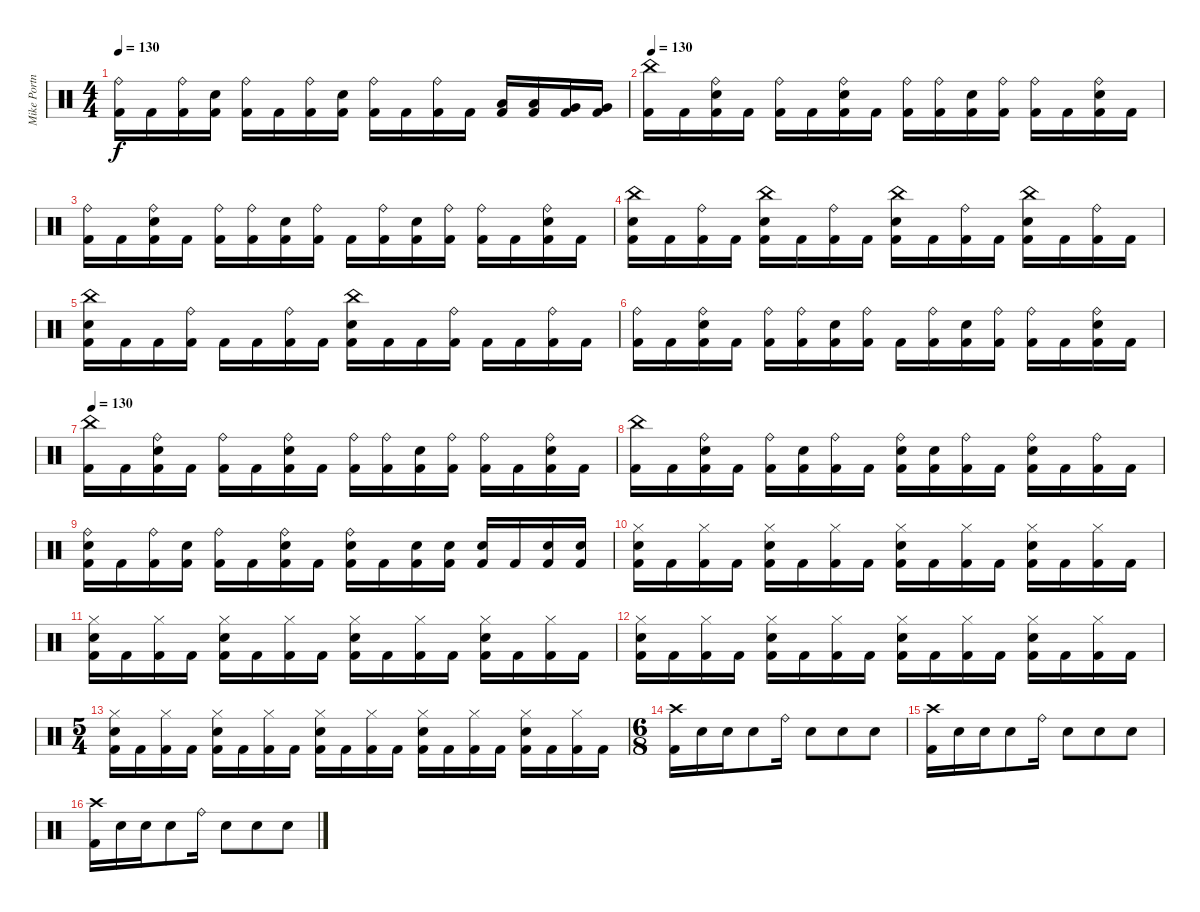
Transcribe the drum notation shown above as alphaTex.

\track ("Mike Portnoy Drums" "Mike Portn") {instrument percussion}
\staff {score}
\articulation defaults
\ts (4 4)
\tempo 130
\clef neutral
\ks c
("Ride (bell)" "Kick (hit) 2").16{dy f} "Kick (hit) 2".16 ("Ride (bell)" "Kick (hit) 2").16 ("Electric Snare (hit)" "Kick (hit) 2").16 ("Ride (bell)" "Kick (hit) 2").16 "Kick (hit) 2".16 ("Ride (bell)" "Kick (hit) 2").16 ("Electric Snare (hit)" "Kick (hit) 2").16 ("Ride (bell)" "Kick (hit) 2").16 "Kick (hit) 2".16 ("Ride (bell)" "Kick (hit) 2").16 "Kick (hit) 2".16 ("Low Tom (hit)" "Kick (hit) 2").16 ("Low Tom (hit)" "Kick (hit) 2").16 ("Very Low Tom (hit)" "Kick (hit) 2").16 ("Very Low Tom (hit)" "Kick (hit) 2").16 |
\tempo 130
("China (hit)" "Kick (hit) 2").16 "Kick (hit) 2".16 ("Ride (bell)" "Electric Snare (hit)" "Kick (hit) 2").16 "Kick (hit) 2".16 ("Ride (bell)" "Kick (hit) 2").16 "Kick (hit) 2".16 ("Ride (bell)" "Electric Snare (hit)" "Kick (hit) 2").16 "Kick (hit) 2".16 ("Ride (bell)" "Kick (hit) 2").16 ("Ride (bell)" "Kick (hit) 2").16 ("Electric Snare (hit)" "Kick (hit) 2").16 ("Ride (bell)" "Kick (hit) 2").16 ("Ride (bell)" "Kick (hit) 2").16 "Kick (hit) 2".16 ("Ride (bell)" "Electric Snare (hit)" "Kick (hit) 2").16 "Kick (hit) 2".16 |
("Ride (bell)" "Kick (hit) 2").16 "Kick (hit) 2".16 ("Ride (bell)" "Electric Snare (hit)" "Kick (hit) 2").16 "Kick (hit) 2".16 ("Ride (bell)" "Kick (hit) 2").16 ("Ride (bell)" "Kick (hit) 2").16 ("Electric Snare (hit)" "Kick (hit) 2").16 ("Ride (bell)" "Kick (hit) 2").16 "Kick (hit) 2".16 ("Ride (bell)" "Kick (hit) 2").16 ("Electric Snare (hit)" "Kick (hit) 2").16 ("Ride (bell)" "Kick (hit) 2").16 ("Ride (bell)" "Kick (hit) 2").16 "Kick (hit) 2".16 ("Ride (bell)" "Electric Snare (hit)" "Kick (hit) 2").16 "Kick (hit) 2".16 |
("China (hit)" "Electric Snare (hit)" "Kick (hit) 2").16 "Kick (hit) 2".16 ("Ride (bell)" "Kick (hit) 2").16 "Kick (hit) 2".16 ("China (hit)" "Electric Snare (hit)" "Kick (hit) 2").16 "Kick (hit) 2".16 ("Ride (bell)" "Kick (hit) 2").16 "Kick (hit) 2".16 ("China (hit)" "Electric Snare (hit)" "Kick (hit) 2").16 "Kick (hit) 2".16 ("Ride (bell)" "Kick (hit) 2").16 "Kick (hit) 2".16 ("China (hit)" "Electric Snare (hit)" "Kick (hit) 2").16 "Kick (hit) 2".16 ("Ride (bell)" "Kick (hit) 2").16 "Kick (hit) 2".16 |
("China (hit)" "Electric Snare (hit)" "Kick (hit) 2").16 "Kick (hit) 2".16 "Kick (hit) 2".16 ("Ride (bell)" "Kick (hit) 2").16 "Kick (hit) 2".16 "Kick (hit) 2".16 ("Ride (bell)" "Kick (hit) 2").16 "Kick (hit) 2".16 ("China (hit)" "Electric Snare (hit)" "Kick (hit) 2").16 "Kick (hit) 2".16 "Kick (hit) 2".16 ("Ride (bell)" "Kick (hit) 2").16 "Kick (hit) 2".16 "Kick (hit) 2".16 ("Ride (bell)" "Kick (hit) 2").16 "Kick (hit) 2".16 |
("Ride (bell)" "Kick (hit) 2").16 "Kick (hit) 2".16 ("Ride (bell)" "Electric Snare (hit)" "Kick (hit) 2").16 "Kick (hit) 2".16 ("Ride (bell)" "Kick (hit) 2").16 ("Ride (bell)" "Kick (hit) 2").16 ("Electric Snare (hit)" "Kick (hit) 2").16 ("Ride (bell)" "Kick (hit) 2").16 "Kick (hit) 2".16 ("Ride (bell)" "Kick (hit) 2").16 ("Electric Snare (hit)" "Kick (hit) 2").16 ("Ride (bell)" "Kick (hit) 2").16 ("Ride (bell)" "Kick (hit) 2").16 "Kick (hit) 2".16 ("Ride (bell)" "Electric Snare (hit)" "Kick (hit) 2").16 "Kick (hit) 2".16 |
\tempo 130
("China (hit)" "Kick (hit) 2").16 "Kick (hit) 2".16 ("Ride (bell)" "Electric Snare (hit)" "Kick (hit) 2").16 "Kick (hit) 2".16 ("Ride (bell)" "Kick (hit) 2").16 "Kick (hit) 2".16 ("Ride (bell)" "Electric Snare (hit)" "Kick (hit) 2").16 "Kick (hit) 2".16 ("Ride (bell)" "Kick (hit) 2").16 ("Ride (bell)" "Kick (hit) 2").16 ("Electric Snare (hit)" "Kick (hit) 2").16 ("Ride (bell)" "Kick (hit) 2").16 ("Ride (bell)" "Kick (hit) 2").16 "Kick (hit) 2".16 ("Ride (bell)" "Electric Snare (hit)" "Kick (hit) 2").16 "Kick (hit) 2".16 |
("China (hit)" "Kick (hit) 2").16 "Kick (hit) 2".16 ("Ride (bell)" "Electric Snare (hit)" "Kick (hit) 2").16 "Kick (hit) 2".16 ("Ride (bell)" "Kick (hit) 2").16 ("Electric Snare (hit)" "Kick (hit) 2").16 ("Ride (bell)" "Kick (hit) 2").16 "Kick (hit) 2".16 ("Ride (bell)" "Electric Snare (hit)" "Kick (hit) 2").16 ("Electric Snare (hit)" "Kick (hit) 2").16 ("Ride (bell)" "Kick (hit) 2").16 "Kick (hit) 2".16 ("Ride (bell)" "Electric Snare (hit)" "Kick (hit) 2").16 "Kick (hit) 2".16 ("Ride (bell)" "Kick (hit) 2").16 "Kick (hit) 2".16 |
("Ride (bell)" "Electric Snare (hit)" "Kick (hit) 2").16 "Kick (hit) 2".16 ("Ride (bell)" "Kick (hit) 2").16 ("Electric Snare (hit)" "Kick (hit) 2").16 ("Ride (bell)" "Kick (hit) 2").16 "Kick (hit) 2".16 ("Ride (bell)" "Electric Snare (hit)" "Kick (hit) 2").16 "Kick (hit) 2".16 ("Ride (bell)" "Electric Snare (hit)" "Kick (hit) 2").16 "Kick (hit) 2".16 ("Electric Snare (hit)" "Kick (hit) 2").16 ("Electric Snare (hit)" "Kick (hit) 2").16 ("Electric Snare (hit)" "Kick (hit) 2").16 "Kick (hit) 2".16 ("Electric Snare (hit)" "Kick (hit) 2").16 ("Electric Snare (hit)" "Kick (hit) 2").16 |
("Hi-Hat (closed)" "Electric Snare (hit)" "Kick (hit) 2").16 "Kick (hit) 2".16 ("Hi-Hat (closed)" "Kick (hit) 2").16 "Kick (hit) 2".16 ("Hi-Hat (closed)" "Electric Snare (hit)" "Kick (hit) 2").16 "Kick (hit) 2".16 ("Hi-Hat (closed)" "Kick (hit) 2").16 "Kick (hit) 2".16 ("Hi-Hat (closed)" "Electric Snare (hit)" "Kick (hit) 2").16 "Kick (hit) 2".16 ("Hi-Hat (closed)" "Kick (hit) 2").16 "Kick (hit) 2".16 ("Hi-Hat (closed)" "Electric Snare (hit)" "Kick (hit) 2").16 "Kick (hit) 2".16 ("Hi-Hat (closed)" "Kick (hit) 2").16 "Kick (hit) 2".16 |
("Hi-Hat (closed)" "Electric Snare (hit)" "Kick (hit) 2").16 "Kick (hit) 2".16 ("Hi-Hat (closed)" "Kick (hit) 2").16 "Kick (hit) 2".16 ("Hi-Hat (closed)" "Electric Snare (hit)" "Kick (hit) 2").16 "Kick (hit) 2".16 ("Hi-Hat (closed)" "Kick (hit) 2").16 "Kick (hit) 2".16 ("Hi-Hat (closed)" "Electric Snare (hit)" "Kick (hit) 2").16 "Kick (hit) 2".16 ("Hi-Hat (closed)" "Kick (hit) 2").16 "Kick (hit) 2".16 ("Hi-Hat (closed)" "Electric Snare (hit)" "Kick (hit) 2").16 "Kick (hit) 2".16 ("Hi-Hat (closed)" "Kick (hit) 2").16 "Kick (hit) 2".16 |
("Hi-Hat (closed)" "Electric Snare (hit)" "Kick (hit) 2").16 "Kick (hit) 2".16 ("Hi-Hat (closed)" "Kick (hit) 2").16 "Kick (hit) 2".16 ("Hi-Hat (closed)" "Electric Snare (hit)" "Kick (hit) 2").16 "Kick (hit) 2".16 ("Hi-Hat (closed)" "Kick (hit) 2").16 "Kick (hit) 2".16 ("Hi-Hat (closed)" "Electric Snare (hit)" "Kick (hit) 2").16 "Kick (hit) 2".16 ("Hi-Hat (closed)" "Kick (hit) 2").16 "Kick (hit) 2".16 ("Hi-Hat (closed)" "Electric Snare (hit)" "Kick (hit) 2").16 "Kick (hit) 2".16 ("Hi-Hat (closed)" "Kick (hit) 2").16 "Kick (hit) 2".16 |
\ts (5 4)
("Hi-Hat (closed)" "Electric Snare (hit)" "Kick (hit) 2").16 "Kick (hit) 2".16 ("Hi-Hat (closed)" "Kick (hit) 2").16 "Kick (hit) 2".16 ("Hi-Hat (closed)" "Electric Snare (hit)" "Kick (hit) 2").16 "Kick (hit) 2".16 ("Hi-Hat (closed)" "Kick (hit) 2").16 "Kick (hit) 2".16 ("Hi-Hat (closed)" "Electric Snare (hit)" "Kick (hit) 2").16 "Kick (hit) 2".16 ("Hi-Hat (closed)" "Kick (hit) 2").16 "Kick (hit) 2".16 ("Hi-Hat (closed)" "Electric Snare (hit)" "Kick (hit) 2").16 "Kick (hit) 2".16 ("Hi-Hat (closed)" "Kick (hit) 2").16 "Kick (hit) 2".16 ("Hi-Hat (closed)" "Electric Snare (hit)" "Kick (hit) 2").16 "Kick (hit) 2".16 ("Hi-Hat (closed)" "Kick (hit) 2").16 "Kick (hit) 2".16 |
\ts (6 8)
("Crash high (hit)" "Kick (hit) 2").16 "Electric Snare (hit)".16 "Electric Snare (hit)".16 "Electric Snare (hit)".8 "Ride (bell)".16 "Electric Snare (hit)".8 "Electric Snare (hit)".8 "Electric Snare (hit)".8 |
("Crash high (hit)" "Kick (hit) 2").16 "Electric Snare (hit)".16 "Electric Snare (hit)".16 "Electric Snare (hit)".8 "Ride (bell)".16 "Electric Snare (hit)".8 "Electric Snare (hit)".8 "Electric Snare (hit)".8 |
("Crash high (hit)" "Kick (hit) 2").16 "Electric Snare (hit)".16 "Electric Snare (hit)".16 "Electric Snare (hit)".8 "Ride (bell)".16 "Electric Snare (hit)".8 "Electric Snare (hit)".8 "Electric Snare (hit)".8
